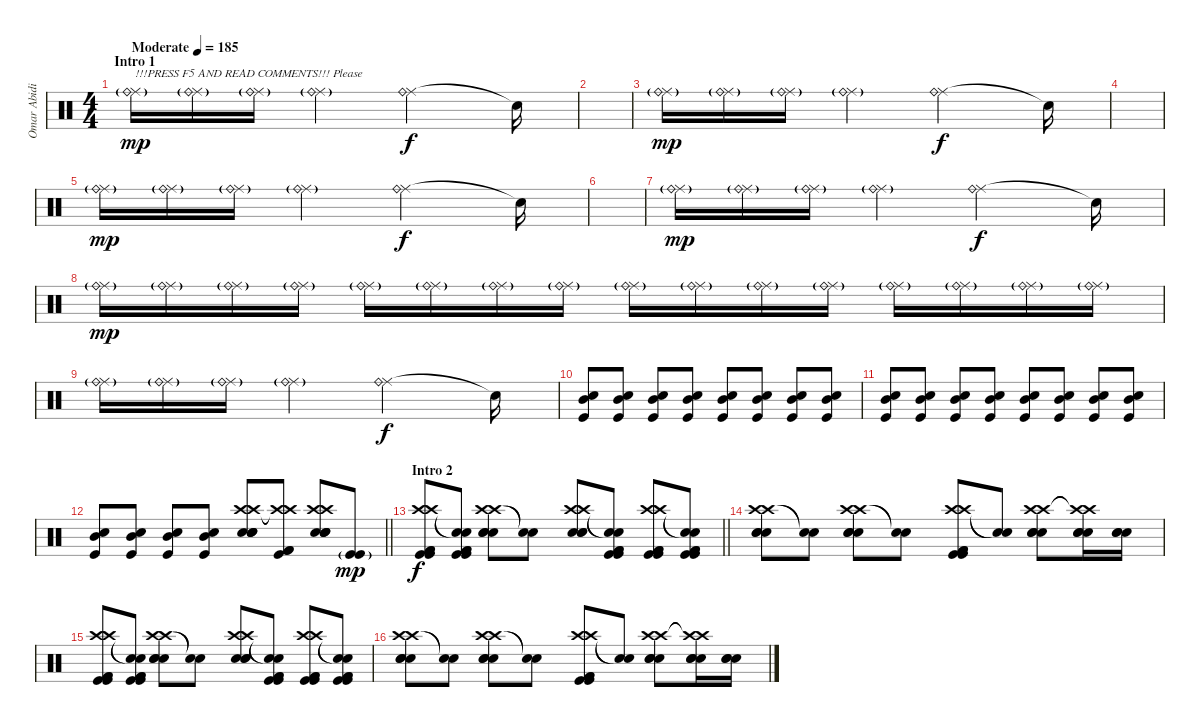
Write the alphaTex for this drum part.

\track ("Omar Abidi" "Omar Abidi") {instrument percussion}
\staff {score}
\articulation defaults
\ts (4 4)
\section ("" "Intro 1")
\tempo (185 "Moderate")
\clef neutral
\ks c
("Ride (middle)"{g} "Ride (bell)"{g}).16{txt "!!!PRESS F5 AND READ COMMENTS!!! Please" dy mp volume 4} ("Ride (middle)"{g} "Ride (bell)"{g}).16 ("Ride (middle)"{g} "Ride (bell)"{g}).16 ("Ride (middle)"{g} "Ride (bell)"{g}).4 ("Ride (middle)" "Ride (bell)").2{dy f} "Snare (hit)"{t}.16 |
|
("Ride (middle)"{g} "Ride (bell)"{g}).16{dy mp volume 4} ("Ride (middle)"{g} "Ride (bell)"{g}).16 ("Ride (middle)"{g} "Ride (bell)"{g}).16 ("Ride (middle)"{g} "Ride (bell)"{g}).4 ("Ride (middle)" "Ride (bell)").2{dy f} "Snare (hit)"{t}.16 |
|
("Ride (middle)"{g} "Ride (bell)"{g}).16{dy mp volume 4} ("Ride (middle)"{g} "Ride (bell)"{g}).16 ("Ride (middle)"{g} "Ride (bell)"{g}).16 ("Ride (middle)"{g} "Ride (bell)"{g}).4 ("Ride (middle)" "Ride (bell)").2{dy f} "Snare (hit)"{t}.16 |
|
("Ride (middle)"{g} "Ride (bell)"{g}).16{dy mp volume 4} ("Ride (middle)"{g} "Ride (bell)"{g}).16 ("Ride (middle)"{g} "Ride (bell)"{g}).16 ("Ride (middle)"{g} "Ride (bell)"{g}).4 ("Ride (middle)" "Ride (bell)").2{dy f} "Snare (hit)"{t}.16 |
("Ride (middle)"{g} "Ride (bell)"{g}).16{dy mp} ("Ride (middle)"{g} "Ride (bell)"{g}).16 ("Ride (middle)"{g} "Ride (bell)"{g}).16 ("Ride (middle)"{g} "Ride (bell)"{g}).16 ("Ride (middle)"{g} "Ride (bell)"{g}).16 ("Ride (middle)"{g} "Ride (bell)"{g}).16 ("Ride (middle)"{g} "Ride (bell)"{g}).16 ("Ride (middle)"{g} "Ride (bell)"{g}).16 ("Ride (middle)"{g} "Ride (bell)"{g}).16 ("Ride (middle)"{g} "Ride (bell)"{g}).16 ("Ride (middle)"{g} "Ride (bell)"{g}).16 ("Ride (middle)"{g} "Ride (bell)"{g}).16 ("Ride (middle)"{g} "Ride (bell)"{g}).16 ("Ride (middle)"{g} "Ride (bell)"{g}).16 ("Ride (middle)"{g} "Ride (bell)"{g}).16 ("Ride (middle)"{g} "Ride (bell)"{g}).16 |
("Ride (middle)"{g} "Ride (bell)"{g}).16{volume 4} ("Ride (middle)"{g} "Ride (bell)"{g}).16 ("Ride (middle)"{g} "Ride (bell)"{g}).16 ("Ride (middle)"{g} "Ride (bell)"{g}).4 ("Ride (middle)" "Ride (bell)").2{dy f} "Snare (hit)"{t}.16 |
("Mid Tom (hit)" "Snare (hit) 2" "Kick (hit)").8{volume 5} ("Mid Tom (hit)" "Snare (hit) 2" "Kick (hit)").8{volume 16} ("Mid Tom (hit)" "Snare (hit) 2" "Kick (hit)").8 ("Mid Tom (hit)" "Snare (hit) 2" "Kick (hit)").8 ("Mid Tom (hit)" "Snare (hit) 2" "Kick (hit)").8 ("Mid Tom (hit)" "Snare (hit) 2" "Kick (hit)").8 ("Mid Tom (hit)" "Snare (hit) 2" "Kick (hit)").8 ("Mid Tom (hit)" "Snare (hit) 2" "Kick (hit)").8 |
("Snare (hit) 2" "Mid Tom (hit)" "Kick (hit)").8 ("Snare (hit) 2" "Mid Tom (hit)" "Kick (hit)").8 ("Snare (hit) 2" "Mid Tom (hit)" "Kick (hit)").8 ("Snare (hit) 2" "Mid Tom (hit)" "Kick (hit)").8 ("Snare (hit) 2" "Mid Tom (hit)" "Kick (hit)").8 ("Snare (hit) 2" "Mid Tom (hit)" "Kick (hit)").8 ("Snare (hit) 2" "Mid Tom (hit)" "Kick (hit)").8 ("Snare (hit) 2" "Mid Tom (hit)" "Kick (hit)").8 |
\barLineRight lightlight
("Snare (hit) 2" "Mid Tom (hit)" "Kick (hit)").8 ("Snare (hit) 2" "Mid Tom (hit)" "Kick (hit)").8 ("Snare (hit) 2" "Mid Tom (hit)" "Kick (hit)").8 ("Snare (hit) 2" "Mid Tom (hit)" "Kick (hit)").8 ("Crash high (hit)" "Crash high (hit)" "Snare (hit) 2" "Snare (hit) 2" "Electric Snare (hit)" "Snare (hit) 2").8 ("Crash high (hit)"{t} "Crash high (hit)"{t} "Kick (hit) 2" "Kick (hit) 2" "Kick (hit)").8 ("Crash high (hit)" "Crash high (hit)" "Snare (hit) 2" "Snare (hit) 2" "Electric Snare (hit)" "Snare (hit) 2").8 ("Kick (hit)"{g} "Kick (hit)").8{dy mp} |
\section ("" "Intro 2")
\barLineRight lightlight
("Crash high (hit)" "Crash high (hit)" "Kick (hit) 2" "Kick (hit) 2" "Kick (hit)" "Kick (hit)").8{dy f volume 10} ("Snare (hit)"{t} "Snare (hit)"{t} "Kick (hit) 2" "Kick (hit) 2" "Kick (hit)" "Kick (hit)").8 ("Crash high (hit)" "Crash high (hit)" "Snare (hit) 2" "Electric Snare (hit)" "Electric Snare (hit)").8 ("Snare (hit)"{t} "Snare (hit)"{t}).8 ("Crash high (hit)" "Crash high (hit)" "Snare (hit) 2" "Electric Snare (hit)" "Electric Snare (hit)").8 ("Snare (hit)"{t} "Snare (hit)"{t} "Kick (hit) 2" "Kick (hit) 2" "Kick (hit)" "Kick (hit)").8 ("Crash high (hit)" "Crash high (hit)" "Kick (hit) 2" "Kick (hit) 2" "Kick (hit)" "Kick (hit)").8 ("Snare (hit)"{t} "Snare (hit)"{t} "Kick (hit) 2" "Kick (hit) 2" "Kick (hit)" "Kick (hit)").8 |
\section ("" "")
("Crash high (hit)" "Crash high (hit)" "Snare (hit) 2" "Electric Snare (hit)" "Electric Snare (hit)").8 ("Snare (hit)"{t} "Snare (hit)"{t}).8 ("Crash high (hit)" "Crash high (hit)" "Snare (hit) 2" "Electric Snare (hit)" "Electric Snare (hit)").8 ("Snare (hit)"{t} "Snare (hit)"{t}).8 ("Crash high (hit)" "Crash high (hit)" "Kick (hit) 2" "Kick (hit) 2" "Kick (hit)" "Kick (hit)").8 ("Snare (hit)"{t} "Snare (hit)"{t}).8 ("Crash high (hit)" "Crash high (hit)" "Snare (hit) 2" "Electric Snare (hit)" "Electric Snare (hit)").8 ("Crash high (hit)"{t} "Crash high (hit)"{t} "Snare (hit) 2" "Electric Snare (hit)" "Electric Snare (hit)").16 ("Snare (hit) 2" "Electric Snare (hit)" "Electric Snare (hit)").16 |
("Crash high (hit)" "Crash high (hit)" "Kick (hit) 2" "Kick (hit) 2" "Kick (hit)" "Kick (hit)").8{volume 10} ("Snare (hit)"{t} "Snare (hit)"{t} "Kick (hit) 2" "Kick (hit) 2" "Kick (hit)" "Kick (hit)").8 ("Crash high (hit)" "Crash high (hit)" "Snare (hit) 2" "Electric Snare (hit)" "Electric Snare (hit)").8 ("Snare (hit)"{t} "Snare (hit)"{t}).8 ("Crash high (hit)" "Crash high (hit)" "Snare (hit) 2" "Electric Snare (hit)" "Electric Snare (hit)").8 ("Snare (hit)"{t} "Snare (hit)"{t} "Kick (hit) 2" "Kick (hit) 2" "Kick (hit)" "Kick (hit)").8 ("Crash high (hit)" "Crash high (hit)" "Kick (hit) 2" "Kick (hit) 2" "Kick (hit)" "Kick (hit)").8 ("Snare (hit)"{t} "Snare (hit)"{t} "Kick (hit) 2" "Kick (hit) 2" "Kick (hit)" "Kick (hit)").8 |
("Crash high (hit)" "Crash high (hit)" "Snare (hit) 2" "Electric Snare (hit)" "Electric Snare (hit)").8 ("Snare (hit)"{t} "Snare (hit)"{t}).8 ("Crash high (hit)" "Crash high (hit)" "Snare (hit) 2" "Electric Snare (hit)" "Electric Snare (hit)").8 ("Snare (hit)"{t} "Snare (hit)"{t}).8 ("Crash high (hit)" "Crash high (hit)" "Kick (hit) 2" "Kick (hit) 2" "Kick (hit)" "Kick (hit)").8 ("Snare (hit)"{t} "Snare (hit)"{t}).8 ("Crash high (hit)" "Crash high (hit)" "Snare (hit) 2" "Electric Snare (hit)" "Electric Snare (hit)").8 ("Crash high (hit)"{t} "Crash high (hit)"{t} "Snare (hit) 2" "Electric Snare (hit)" "Electric Snare (hit)").16 ("Snare (hit) 2" "Electric Snare (hit)" "Electric Snare (hit)").16
